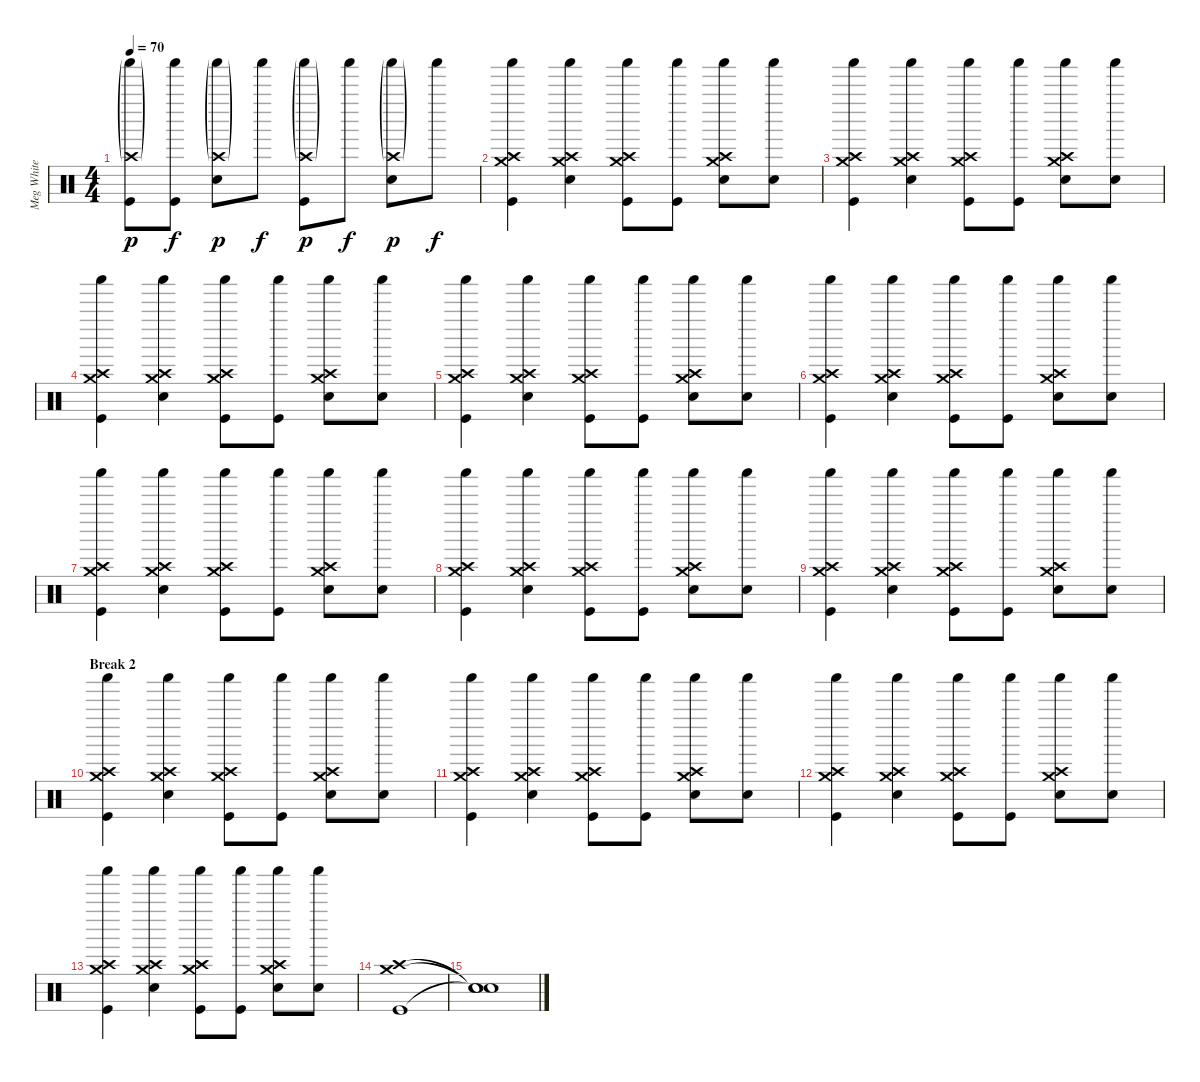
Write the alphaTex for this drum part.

\track ("Meg White" "Meg White") {instrument percussion}
\staff {score}
\articulation defaults
\ts (4 4)
\tempo 70
\clef neutral
\ks c
("Kick (hit)" "Shaker (hit)"{g} "Crash high (hit)"{g}).8{dy p} ("Kick (hit)" "Shaker (hit)").8{dy f} ("Snare (hit) 2" "Shaker (hit)"{g} "Crash high (hit)"{g}).8{dy p} "Shaker (hit)".8{dy f} ("Kick (hit)" "Shaker (hit)"{g} "Crash high (hit)"{g}).8{dy p} "Shaker (hit)".8{dy f} ("Snare (hit) 2" "Shaker (hit)"{g} "Crash high (hit)"{g}).8{dy p} "Shaker (hit)".8{dy f} |
("Kick (hit)" "Crash medium (hit)" "Shaker (hit)" "Crash high (hit)").4 ("Snare (hit) 2" "Crash medium (hit)" "Shaker (hit)" "Crash high (hit)").4 ("Kick (hit)" "Crash medium (hit)" "Shaker (hit)" "Crash high (hit)").8 ("Kick (hit)" "Shaker (hit)").8 ("Snare (hit) 2" "Crash medium (hit)" "Shaker (hit)" "Crash high (hit)").8 ("Snare (hit) 2" "Shaker (hit)").8 |
("Kick (hit)" "Crash medium (hit)" "Shaker (hit)" "Crash high (hit)").4 ("Snare (hit) 2" "Crash medium (hit)" "Shaker (hit)" "Crash high (hit)").4 ("Kick (hit)" "Crash medium (hit)" "Shaker (hit)" "Crash high (hit)").8 ("Kick (hit)" "Shaker (hit)").8 ("Snare (hit) 2" "Crash medium (hit)" "Shaker (hit)" "Crash high (hit)").8 ("Snare (hit) 2" "Shaker (hit)").8 |
("Kick (hit)" "Crash medium (hit)" "Shaker (hit)" "Crash high (hit)").4 ("Snare (hit) 2" "Crash medium (hit)" "Shaker (hit)" "Crash high (hit)").4 ("Kick (hit)" "Crash medium (hit)" "Shaker (hit)" "Crash high (hit)").8 ("Kick (hit)" "Shaker (hit)").8 ("Snare (hit) 2" "Crash medium (hit)" "Shaker (hit)" "Crash high (hit)").8 ("Snare (hit) 2" "Shaker (hit)").8 |
("Kick (hit)" "Crash medium (hit)" "Shaker (hit)" "Crash high (hit)").4 ("Snare (hit) 2" "Crash medium (hit)" "Shaker (hit)" "Crash high (hit)").4 ("Kick (hit)" "Crash medium (hit)" "Shaker (hit)" "Crash high (hit)").8 ("Kick (hit)" "Shaker (hit)").8 ("Snare (hit) 2" "Crash medium (hit)" "Shaker (hit)" "Crash high (hit)").8 ("Snare (hit) 2" "Shaker (hit)").8 |
("Kick (hit)" "Crash medium (hit)" "Shaker (hit)" "Crash high (hit)").4 ("Snare (hit) 2" "Crash medium (hit)" "Shaker (hit)" "Crash high (hit)").4 ("Kick (hit)" "Crash medium (hit)" "Shaker (hit)" "Crash high (hit)").8 ("Kick (hit)" "Shaker (hit)").8 ("Snare (hit) 2" "Crash medium (hit)" "Shaker (hit)" "Crash high (hit)").8 ("Snare (hit) 2" "Shaker (hit)").8 |
("Kick (hit)" "Crash medium (hit)" "Shaker (hit)" "Crash high (hit)").4 ("Snare (hit) 2" "Crash medium (hit)" "Shaker (hit)" "Crash high (hit)").4 ("Kick (hit)" "Crash medium (hit)" "Shaker (hit)" "Crash high (hit)").8 ("Kick (hit)" "Shaker (hit)").8 ("Snare (hit) 2" "Crash medium (hit)" "Shaker (hit)" "Crash high (hit)").8 ("Snare (hit) 2" "Shaker (hit)").8 |
("Kick (hit)" "Crash medium (hit)" "Shaker (hit)" "Crash high (hit)").4 ("Snare (hit) 2" "Crash medium (hit)" "Shaker (hit)" "Crash high (hit)").4 ("Kick (hit)" "Crash medium (hit)" "Shaker (hit)" "Crash high (hit)").8 ("Kick (hit)" "Shaker (hit)").8 ("Snare (hit) 2" "Crash medium (hit)" "Shaker (hit)" "Crash high (hit)").8 ("Snare (hit) 2" "Shaker (hit)").8 |
("Kick (hit)" "Crash medium (hit)" "Shaker (hit)" "Crash high (hit)").4 ("Snare (hit) 2" "Crash medium (hit)" "Shaker (hit)" "Crash high (hit)").4 ("Kick (hit)" "Crash medium (hit)" "Shaker (hit)" "Crash high (hit)").8 ("Kick (hit)" "Shaker (hit)").8 ("Snare (hit) 2" "Crash medium (hit)" "Shaker (hit)" "Crash high (hit)").8 ("Snare (hit) 2" "Shaker (hit)").8 |
\section ("" "Break 2")
("Kick (hit)" "Crash medium (hit)" "Shaker (hit)" "Crash high (hit)").4 ("Snare (hit) 2" "Crash medium (hit)" "Shaker (hit)" "Crash high (hit)").4 ("Kick (hit)" "Crash medium (hit)" "Shaker (hit)" "Crash high (hit)").8 ("Kick (hit)" "Shaker (hit)").8 ("Snare (hit) 2" "Crash medium (hit)" "Shaker (hit)" "Crash high (hit)").8 ("Snare (hit) 2" "Shaker (hit)").8 |
("Kick (hit)" "Crash medium (hit)" "Shaker (hit)" "Crash high (hit)").4 ("Snare (hit) 2" "Crash medium (hit)" "Shaker (hit)" "Crash high (hit)").4 ("Kick (hit)" "Crash medium (hit)" "Shaker (hit)" "Crash high (hit)").8 ("Kick (hit)" "Shaker (hit)").8 ("Snare (hit) 2" "Crash medium (hit)" "Shaker (hit)" "Crash high (hit)").8 ("Snare (hit) 2" "Shaker (hit)").8 |
("Kick (hit)" "Crash medium (hit)" "Shaker (hit)" "Crash high (hit)").4 ("Snare (hit) 2" "Crash medium (hit)" "Shaker (hit)" "Crash high (hit)").4 ("Kick (hit)" "Crash medium (hit)" "Shaker (hit)" "Crash high (hit)").8 ("Kick (hit)" "Shaker (hit)").8 ("Snare (hit) 2" "Crash medium (hit)" "Shaker (hit)" "Crash high (hit)").8 ("Snare (hit) 2" "Shaker (hit)").8 |
("Kick (hit)" "Crash medium (hit)" "Shaker (hit)" "Crash high (hit)").4 ("Snare (hit) 2" "Crash medium (hit)" "Shaker (hit)" "Crash high (hit)").4 ("Kick (hit)" "Crash medium (hit)" "Shaker (hit)" "Crash high (hit)").8 ("Kick (hit)" "Shaker (hit)").8 ("Snare (hit) 2" "Crash medium (hit)" "Shaker (hit)" "Crash high (hit)").8 ("Snare (hit) 2" "Shaker (hit)").8 |
("Kick (hit)" "Crash medium (hit)" "Crash high (hit)").1 |
("Snare (hit)"{t} "Snare (hit)"{t} "Snare (hit)"{t}).1
